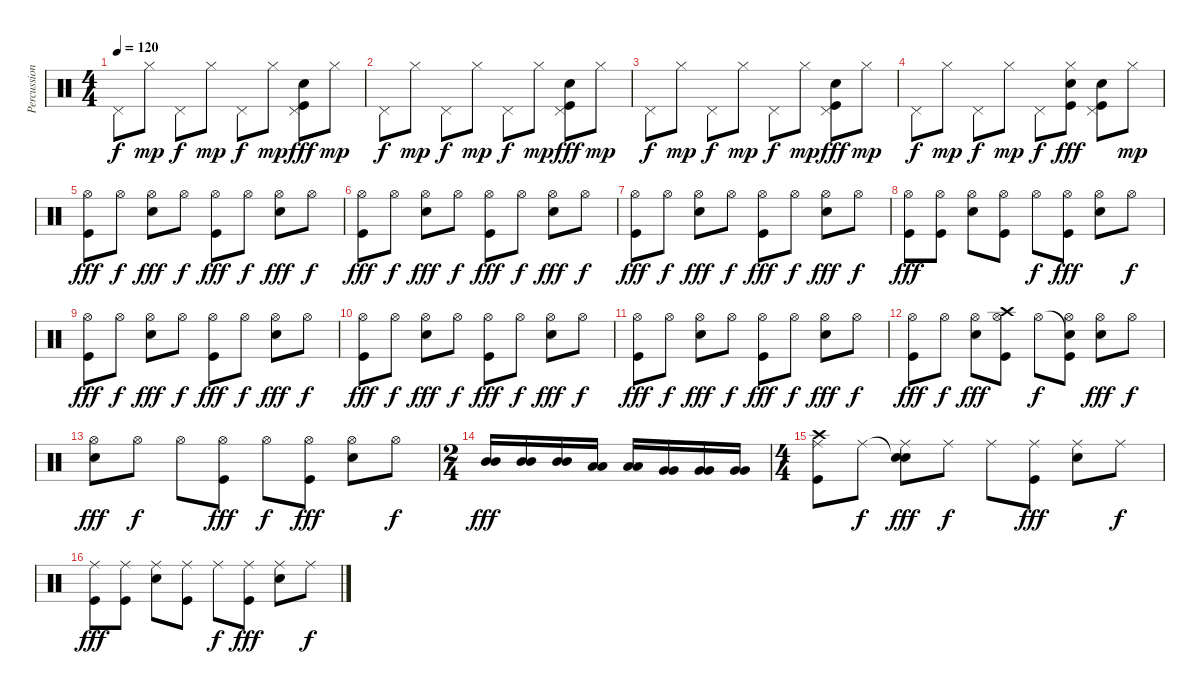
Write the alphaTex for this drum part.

\track ("Percussion" "Percussion") {instrument percussion}
\staff {score}
\articulation defaults
\ts (4 4)
\tempo 120
\clef neutral
\ks c "Pedal Hi-Hat (hit)".8{dy f} "Hi-Hat (closed)".8{dy mp} "Pedal Hi-Hat (hit)".8{dy f} "Hi-Hat (closed)".8{dy mp} "Pedal Hi-Hat (hit)".8{dy f} "Hi-Hat (closed)".8{dy mp}
("Pedal Hi-Hat (hit)" "Snare (hit) 2" "Kick (hit)").8{dy fff} "Hi-Hat (closed)".8{dy mp} |
"Pedal Hi-Hat (hit)".8{dy f} "Hi-Hat (closed)".8{dy mp} "Pedal Hi-Hat (hit)".8{dy f} "Hi-Hat (closed)".8{dy mp} "Pedal Hi-Hat (hit)".8{dy f} "Hi-Hat (closed)".8{dy mp} ("Pedal Hi-Hat (hit)" "Snare (hit) 2" "Kick (hit)").8{dy fff} "Hi-Hat (closed)".8{dy mp} |
"Pedal Hi-Hat (hit)".8{dy f} "Hi-Hat (closed)".8{dy mp} "Pedal Hi-Hat (hit)".8{dy f} "Hi-Hat (closed)".8{dy mp} "Pedal Hi-Hat (hit)".8{dy f} "Hi-Hat (closed)".8{dy mp} ("Pedal Hi-Hat (hit)" "Snare (hit) 2" "Kick (hit)").8{dy fff} "Hi-Hat (closed)".8{dy mp} |
"Pedal Hi-Hat (hit)".8{dy f} "Hi-Hat (closed)".8{dy mp} "Pedal Hi-Hat (hit)".8{dy f} "Hi-Hat (closed)".8{dy mp} "Pedal Hi-Hat (hit)".8{dy f} ("Hi-Hat (closed)" "Snare (hit) 2" "Kick (hit)").8{dy fff} ("Pedal Hi-Hat (hit)" "Snare (hit) 2" "Kick (hit)").8 "Hi-Hat (closed)".8{dy mp} |
("Hi-Hat (open)" "Kick (hit)").8{dy fff} "Hi-Hat (open)".8{dy f} ("Hi-Hat (open)" "Snare (hit) 2").8{dy fff} "Hi-Hat (open)".8{dy f} ("Hi-Hat (open)" "Kick (hit)").8{dy fff} "Hi-Hat (open)".8{dy f} ("Hi-Hat (open)" "Snare (hit) 2").8{dy fff} "Hi-Hat (open)".8{dy f} |
("Hi-Hat (open)" "Kick (hit)").8{dy fff} "Hi-Hat (open)".8{dy f} ("Hi-Hat (open)" "Snare (hit) 2").8{dy fff} "Hi-Hat (open)".8{dy f} ("Hi-Hat (open)" "Kick (hit)").8{dy fff} "Hi-Hat (open)".8{dy f} ("Hi-Hat (open)" "Snare (hit) 2").8{dy fff} "Hi-Hat (open)".8{dy f} |
("Hi-Hat (open)" "Kick (hit)").8{dy fff} "Hi-Hat (open)".8{dy f} ("Hi-Hat (open)" "Snare (hit) 2").8{dy fff} "Hi-Hat (open)".8{dy f} ("Hi-Hat (open)" "Kick (hit)").8{dy fff} "Hi-Hat (open)".8{dy f} ("Hi-Hat (open)" "Snare (hit) 2").8{dy fff} "Hi-Hat (open)".8{dy f} |
("Hi-Hat (open)" "Kick (hit)").8{dy fff} ("Hi-Hat (open)" "Kick (hit)").8 ("Hi-Hat (open)" "Snare (hit) 2").8 ("Hi-Hat (open)" "Kick (hit)").8 "Hi-Hat (open)".8{dy f} ("Hi-Hat (open)" "Kick (hit)").8{dy fff} ("Hi-Hat (open)" "Snare (hit) 2").8 "Hi-Hat (open)".8{dy f} |
("Hi-Hat (open)" "Kick (hit)").8{dy fff} "Hi-Hat (open)".8{dy f} ("Hi-Hat (open)" "Snare (hit) 2").8{dy fff} "Hi-Hat (open)".8{dy f} ("Hi-Hat (open)" "Kick (hit)").8{dy fff} "Hi-Hat (open)".8{dy f} ("Hi-Hat (open)" "Snare (hit) 2").8{dy fff} "Hi-Hat (open)".8{dy f} |
("Hi-Hat (open)" "Kick (hit)").8{dy fff} "Hi-Hat (open)".8{dy f} ("Hi-Hat (open)" "Snare (hit) 2").8{dy fff} "Hi-Hat (open)".8{dy f} ("Hi-Hat (open)" "Kick (hit)").8{dy fff} "Hi-Hat (open)".8{dy f} ("Hi-Hat (open)" "Snare (hit) 2").8{dy fff} "Hi-Hat (open)".8{dy f} |
("Hi-Hat (open)" "Kick (hit)").8{dy fff} "Hi-Hat (open)".8{dy f} ("Hi-Hat (open)" "Snare (hit) 2").8{dy fff} "Hi-Hat (open)".8{dy f} ("Hi-Hat (open)" "Kick (hit)").8{dy fff} "Hi-Hat (open)".8{dy f} ("Hi-Hat (open)" "Snare (hit) 2").8{dy fff} "Hi-Hat (open)".8{dy f} |
("Hi-Hat (open)" "Kick (hit)").8{dy fff} "Hi-Hat (open)".8{dy f} ("Hi-Hat (open)" "Snare (hit) 2").8{dy fff} ("Crash high (hit)" "Hi-Hat (open)" "Kick (hit)").8 "Hi-Hat (open)".8{dy f} ("Snare (hit)"{t} "Hi-Hat (open)" "Kick (hit)").8 ("Hi-Hat (open)" "Snare (hit) 2").8{dy fff} "Hi-Hat (open)".8{dy f} |
("Hi-Hat (open)" "Snare (hit) 2").8{dy fff} "Hi-Hat (open)".8{dy f} "Hi-Hat (open)".8 ("Hi-Hat (open)" "Kick (hit)").8{dy fff} "Hi-Hat (open)".8{dy f} ("Hi-Hat (open)" "Kick (hit)").8{dy fff} ("Hi-Hat (open)" "Snare (hit) 2").8 "Hi-Hat (open)".8{dy f} |
\ts (2 4)
("Mid Tom (hit)" "Mid Tom (hit)").16{dy fff} ("Mid Tom (hit)" "Mid Tom (hit)").16 ("Mid Tom (hit)" "Mid Tom (hit)").16 ("Low Tom (hit)" "Low Tom (hit)").16 ("Low Tom (hit)" "Low Tom (hit)").16 ("Very Low Tom (hit)" "Very Low Tom (hit)").16 ("Very Low Tom (hit)" "Very Low Tom (hit)").16 ("Very Low Tom (hit)" "Very Low Tom (hit)").16 |
\ts (4 4)
("Crash high (hit)" "Ride (middle)" "Kick (hit)").8 "Ride (middle)".8{dy f} ("Snare (hit)"{t} "Ride (middle)" "Snare (hit) 2").8{dy fff} "Ride (middle)".8{dy f} "Ride (middle)".8 ("Ride (middle)" "Kick (hit)").8{dy fff} ("Ride (middle)" "Snare (hit) 2").8 "Ride (middle)".8{dy f} |
("Ride (middle)" "Kick (hit)").8{dy fff} ("Ride (middle)" "Kick (hit)").8 ("Ride (middle)" "Snare (hit) 2").8 ("Ride (middle)" "Kick (hit)").8 "Ride (middle)".8{dy f} ("Ride (middle)" "Kick (hit)").8{dy fff} ("Ride (middle)" "Snare (hit) 2").8 "Ride (middle)".8{dy f}
